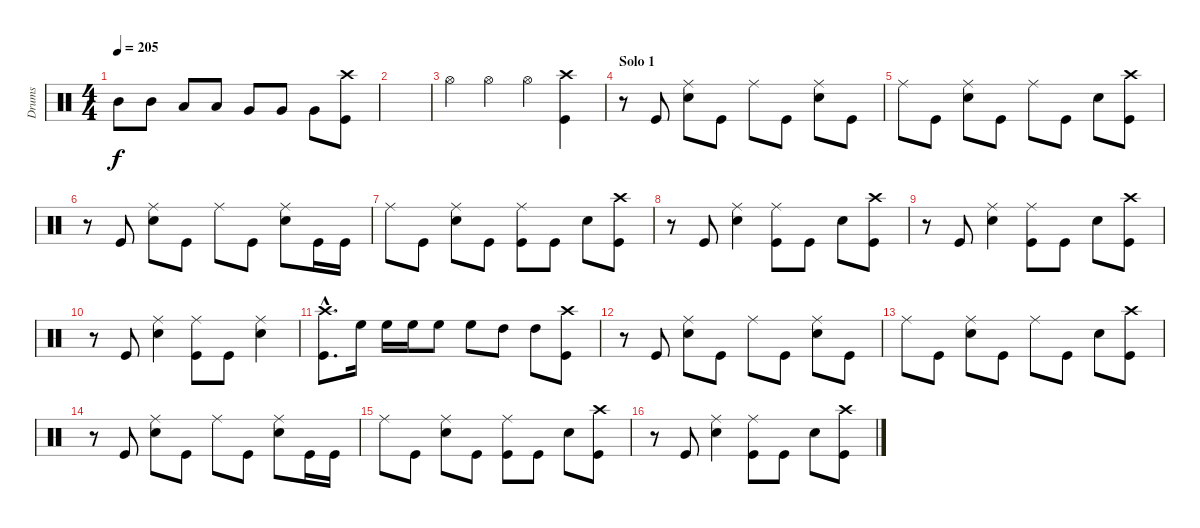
\track ("Drums" "Drums") {instrument percussion}
\staff {score}
\articulation defaults
\ts (4 4)
\tempo 205
\clef neutral
\ks c "Mid Tom (hit)".8{dy f} "Mid Tom (hit)".8 "Low Tom (hit)".8 "Low Tom (hit)".8 "Very Low Tom (hit)".8 "Very Low Tom (hit)".8 "Very Low Tom (hit)".8
("Crash high (hit)" "Kick (hit)").8 |
|
"Hi-Hat (open)".4 "Hi-Hat (open)".4 "Hi-Hat (open)".4 ("Crash high (hit)" "Kick (hit)").4 |
\section ("" "Solo 1")
r.8 "Kick (hit)".8 ("Ride (middle)" "Snare (hit) 2").8 "Kick (hit)".8 "Ride (middle)".8 "Kick (hit)".8 ("Ride (middle)" "Snare (hit) 2").8 "Kick (hit)".8 |
"Ride (middle)".8 "Kick (hit)".8 ("Ride (middle)" "Snare (hit) 2").8 "Kick (hit)".8 "Ride (middle)".8 "Kick (hit)".8 "Snare (hit) 2".8 ("Crash high (hit)" "Kick (hit)").8 |
r.8 "Kick (hit)".8 ("Ride (middle)" "Snare (hit) 2").8 "Kick (hit)".8 "Ride (middle)".8 "Kick (hit)".8 ("Ride (middle)" "Snare (hit) 2").8 "Kick (hit)".16 "Kick (hit)".16 |
"Ride (middle)".8 "Kick (hit)".8 ("Ride (middle)" "Snare (hit) 2").8 "Kick (hit)".8 ("Ride (middle)" "Kick (hit)").8 "Kick (hit)".8 "Snare (hit) 2".8 ("Crash high (hit)" "Kick (hit)").8 |
r.8 "Kick (hit)".8 ("Ride (middle)" "Snare (hit) 2").4 ("Ride (middle)" "Kick (hit)").8 "Kick (hit)".8 "Snare (hit) 2".8 ("Crash high (hit)" "Kick (hit)").8 |
r.8 "Kick (hit)".8 ("Ride (middle)" "Snare (hit) 2").4 ("Ride (middle)" "Kick (hit)").8 "Kick (hit)".8 "Snare (hit) 2".8 ("Crash high (hit)" "Kick (hit)").8 |
r.8 "Kick (hit)".8 ("Ride (middle)" "Snare (hit) 2").4 ("Ride (middle)" "Kick (hit)").8 "Kick (hit)".8 ("Ride (middle)" "Snare (hit) 2").4 |
("Crash high (hit)"{hac} "Kick (hit)"{hac}).8{d} "High Floor Tom (hit)".16 "High Floor Tom (hit)".16 "High Floor Tom (hit)".16 "High Floor Tom (hit)".8 "High Floor Tom (hit)".8 "High Tom (hit)".8 "High Tom (hit)".8 ("Crash high (hit)" "Kick (hit)").8 |
r.8 "Kick (hit)".8 ("Ride (middle)" "Snare (hit) 2").8 "Kick (hit)".8 "Ride (middle)".8 "Kick (hit)".8 ("Ride (middle)" "Snare (hit) 2").8 "Kick (hit)".8 |
"Ride (middle)".8 "Kick (hit)".8 ("Ride (middle)" "Snare (hit) 2").8 "Kick (hit)".8 "Ride (middle)".8 "Kick (hit)".8 "Snare (hit) 2".8 ("Crash high (hit)" "Kick (hit)").8 |
r.8 "Kick (hit)".8 ("Ride (middle)" "Snare (hit) 2").8 "Kick (hit)".8 "Ride (middle)".8 "Kick (hit)".8 ("Ride (middle)" "Snare (hit) 2").8 "Kick (hit)".16 "Kick (hit)".16 |
"Ride (middle)".8 "Kick (hit)".8 ("Ride (middle)" "Snare (hit) 2").8 "Kick (hit)".8 ("Ride (middle)" "Kick (hit)").8 "Kick (hit)".8 "Snare (hit) 2".8 ("Crash high (hit)" "Kick (hit)").8 |
r.8 "Kick (hit)".8 ("Ride (middle)" "Snare (hit) 2").4 ("Ride (middle)" "Kick (hit)").8 "Kick (hit)".8 "Snare (hit) 2".8 ("Crash high (hit)" "Kick (hit)").8
